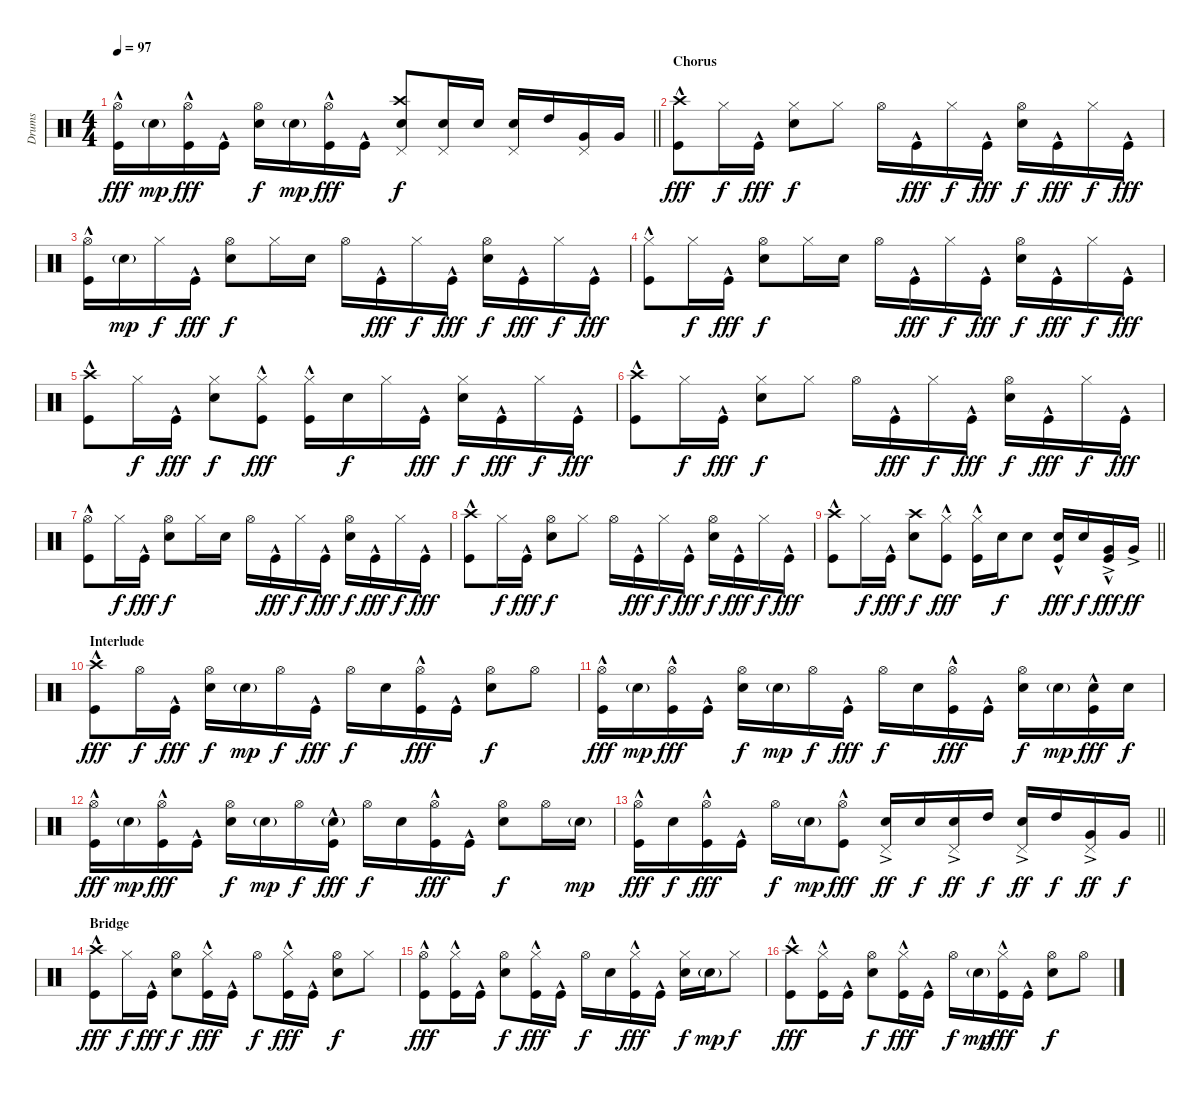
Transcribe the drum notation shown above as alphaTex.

\track ("Drums" "Drums") {instrument percussion}
\staff {score}
\articulation defaults
\ts (4 4)
\tempo 97
\clef neutral
\barLineRight lightlight
\ks c
("Hi-Hat (open)" "Kick (hit)"{hac}).16{dy fff} "Snare (hit) 2"{g}.16{dy mp} ("Hi-Hat (open)" "Kick (hit)"{hac}).16{dy fff} "Kick (hit)"{hac}.16 ("Hi-Hat (open)" "Snare (hit) 2").16{dy f} "Snare (hit) 2"{g}.16{dy mp} ("Hi-Hat (open)" "Kick (hit)"{hac}).16{dy fff} "Kick (hit)"{hac}.16 ("Crash high (hit)" "Snare (hit) 2" "Pedal Hi-Hat (hit)").8{dy f} ("Snare (hit) 2" "Pedal Hi-Hat (hit)").16 "Snare (hit) 2".16 ("Snare (hit) 2" "Pedal Hi-Hat (hit)").16 "High Tom (hit)".16 ("Very Low Tom (hit)" "Pedal Hi-Hat (hit)").16 "Very Low Tom (hit)".16 |
\section ("" "Chorus")
("Crash high (hit)" "Kick (hit)"{hac}).8{dy fff} "Hi-Hat (closed)".16{dy f} "Kick (hit)"{hac}.16{dy fff} ("Hi-Hat (closed)" "Snare (hit) 2").8{dy f} "Hi-Hat (closed)".8 "Hi-Hat (open)".16 "Kick (hit)"{hac}.16{dy fff} "Hi-Hat (closed)".16{dy f} "Kick (hit)"{hac}.16{dy fff} ("Hi-Hat (open)" "Snare (hit) 2").16{dy f} "Kick (hit)"{hac}.16{dy fff} "Hi-Hat (closed)".16{dy f} "Kick (hit)"{hac}.16{dy fff} |
("Hi-Hat (open)" "Kick (hit)"{hac}).16 "Snare (hit) 2"{g}.16{dy mp} "Hi-Hat (closed)".16{dy f} "Kick (hit)"{hac}.16{dy fff} ("Hi-Hat (open)" "Snare (hit) 2").8{dy f} "Hi-Hat (closed)".16 "Snare (hit) 2".16 "Hi-Hat (open)".16 "Kick (hit)"{hac}.16{dy fff} "Hi-Hat (closed)".16{dy f} "Kick (hit)"{hac}.16{dy fff} ("Hi-Hat (open)" "Snare (hit) 2").16{dy f} "Kick (hit)"{hac}.16{dy fff} "Hi-Hat (closed)".16{dy f} "Kick (hit)"{hac}.16{dy fff} |
("Hi-Hat (closed)" "Kick (hit)"{hac}).8 "Hi-Hat (closed)".16{dy f} "Kick (hit)"{hac}.16{dy fff} ("Hi-Hat (open)" "Snare (hit) 2").8{dy f} "Hi-Hat (closed)".16 "Snare (hit) 2".16 "Hi-Hat (open)".16 "Kick (hit)"{hac}.16{dy fff} "Hi-Hat (closed)".16{dy f} "Kick (hit)"{hac}.16{dy fff} ("Hi-Hat (open)" "Snare (hit) 2").16{dy f} "Kick (hit)"{hac}.16{dy fff} "Hi-Hat (closed)".16{dy f} "Kick (hit)"{hac}.16{dy fff} |
("Crash high (hit)" "Kick (hit)"{hac}).8 "Hi-Hat (closed)".16{dy f} "Kick (hit)"{hac}.16{dy fff} ("Hi-Hat (closed)" "Snare (hit) 2").8{dy f} ("Hi-Hat (closed)" "Kick (hit)"{hac}).8{dy fff} ("Hi-Hat (closed)" "Kick (hit)"{hac}).16 "Snare (hit) 2".16{dy f} "Hi-Hat (closed)".16 "Kick (hit)"{hac}.16{dy fff} ("Hi-Hat (closed)" "Snare (hit) 2").16{dy f} "Kick (hit)"{hac}.16{dy fff} "Hi-Hat (closed)".16{dy f} "Kick (hit)"{hac}.16{dy fff} |
("Crash high (hit)" "Kick (hit)"{hac}).8 "Hi-Hat (closed)".16{dy f} "Kick (hit)"{hac}.16{dy fff} ("Hi-Hat (closed)" "Snare (hit) 2").8{dy f} "Hi-Hat (closed)".8 "Hi-Hat (open)".16 "Kick (hit)"{hac}.16{dy fff} "Hi-Hat (closed)".16{dy f} "Kick (hit)"{hac}.16{dy fff} ("Hi-Hat (open)" "Snare (hit) 2").16{dy f} "Kick (hit)"{hac}.16{dy fff} "Hi-Hat (closed)".16{dy f} "Kick (hit)"{hac}.16{dy fff} |
("Hi-Hat (open)" "Kick (hit)"{hac}).8 "Hi-Hat (closed)".16{dy f} "Kick (hit)"{hac}.16{dy fff} ("Hi-Hat (open)" "Snare (hit) 2").8{dy f} "Hi-Hat (closed)".16 "Snare (hit) 2".16 "Hi-Hat (open)".16 "Kick (hit)"{hac}.16{dy fff} "Hi-Hat (closed)".16{dy f} "Kick (hit)"{hac}.16{dy fff} ("Hi-Hat (open)" "Snare (hit) 2").16{dy f} "Kick (hit)"{hac}.16{dy fff} "Hi-Hat (closed)".16{dy f} "Kick (hit)"{hac}.16{dy fff} |
("Crash high (hit)" "Kick (hit)"{hac}).8 "Hi-Hat (closed)".16{dy f} "Kick (hit)"{hac}.16{dy fff} ("Hi-Hat (open)" "Snare (hit) 2").8{dy f} "Hi-Hat (closed)".8 "Hi-Hat (open)".16 "Kick (hit)"{hac}.16{dy fff} "Hi-Hat (closed)".16{dy f} "Kick (hit)"{hac}.16{dy fff} ("Hi-Hat (open)" "Snare (hit) 2").16{dy f} "Kick (hit)"{hac}.16{dy fff} "Hi-Hat (closed)".16{dy f} "Kick (hit)"{hac}.16{dy fff} |
\barLineRight lightlight
("Crash high (hit)" "Kick (hit)"{hac}).8 "Hi-Hat (closed)".16{dy f} "Kick (hit)"{hac}.16{dy fff} ("Crash high (hit)" "Snare (hit) 2").8{dy f} ("Hi-Hat (closed)" "Kick (hit)"{hac}).8{dy fff} ("Hi-Hat (closed)" "Kick (hit)"{hac}).16 "Snare (hit) 2".16{dy f} "Snare (hit) 2".8 ("Snare (hit) 2" "Kick (hit)"{hac}).16{dy fff} "Snare (hit) 2".16{dy f} ("Very Low Tom (hit)"{ac} "Kick (hit)"{hac}).16{dy fff} "Very Low Tom (hit)"{ac}.16{dy ff} |
\section ("" "Interlude")
("Crash high (hit)" "Kick (hit)"{hac}).8{dy fff} "Hi-Hat (open)".16{dy f} "Kick (hit)"{hac}.16{dy fff} ("Hi-Hat (open)" "Snare (hit) 2").16{dy f} "Snare (hit) 2"{g}.16{dy mp} "Hi-Hat (open)".16{dy f} "Kick (hit)"{hac}.16{dy fff} "Hi-Hat (open)".16{dy f} "Snare (hit) 2".16 ("Hi-Hat (open)" "Kick (hit)"{hac}).16{dy fff} "Kick (hit)"{hac}.16 ("Hi-Hat (open)" "Snare (hit) 2").8{dy f} "Hi-Hat (open)".8 |
("Hi-Hat (open)" "Kick (hit)"{hac}).16{dy fff} "Snare (hit) 2"{g}.16{dy mp} ("Hi-Hat (open)" "Kick (hit)"{hac}).16{dy fff} "Kick (hit)"{hac}.16 ("Hi-Hat (open)" "Snare (hit) 2").16{dy f} "Snare (hit) 2"{g}.16{dy mp} "Hi-Hat (open)".16{dy f} "Kick (hit)"{hac}.16{dy fff} "Hi-Hat (open)".16{dy f} "Snare (hit) 2".16 ("Hi-Hat (open)" "Kick (hit)"{hac}).16{dy fff} "Kick (hit)"{hac}.16 ("Hi-Hat (open)" "Snare (hit) 2").16{dy f} "Snare (hit) 2"{g}.16{dy mp} ("Snare (hit) 2" "Kick (hit)"{hac}).16{dy fff} "Snare (hit) 2".16{dy f} |
("Hi-Hat (open)" "Kick (hit)"{hac}).16{dy fff} "Snare (hit) 2"{g}.16{dy mp} ("Hi-Hat (open)" "Kick (hit)"{hac}).16{dy fff} "Kick (hit)"{hac}.16 ("Hi-Hat (open)" "Snare (hit) 2").16{dy f} "Snare (hit) 2"{g}.16{dy mp} "Hi-Hat (open)".16{dy f} ("Snare (hit) 2"{g} "Kick (hit)"{hac}).16{dy fff} "Hi-Hat (open)".16{dy f} "Snare (hit) 2".16 ("Hi-Hat (open)" "Kick (hit)"{hac}).16{dy fff} "Kick (hit)"{hac}.16 ("Hi-Hat (open)" "Snare (hit) 2").8{dy f} "Hi-Hat (open)".16 "Snare (hit) 2"{g}.16{dy mp} |
\barLineRight lightlight
("Hi-Hat (open)" "Kick (hit)"{hac}).16{dy fff} "Snare (hit) 2".16{dy f} ("Hi-Hat (open)" "Kick (hit)"{hac}).16{dy fff} "Kick (hit)"{hac}.16 "Hi-Hat (open)".16{dy f} "Snare (hit) 2"{g}.16{dy mp} ("Hi-Hat (open)" "Kick (hit)"{hac}).8{dy fff} ("Snare (hit) 2" "Pedal Hi-Hat (hit)"{ac}).16{dy ff} "Snare (hit) 2".16{dy f} ("Snare (hit) 2" "Pedal Hi-Hat (hit)"{ac}).16{dy ff} "High Tom (hit)".16{dy f} ("Snare (hit) 2" "Pedal Hi-Hat (hit)"{ac}).16{dy ff} "High Tom (hit)".16{dy f} ("Very Low Tom (hit)" "Pedal Hi-Hat (hit)"{ac}).16{dy ff} "Very Low Tom (hit)".16{dy f} |
\section ("" "Bridge")
("Crash high (hit)" "Kick (hit)"{hac}).8{dy fff} "Hi-Hat (closed)".16{dy f} "Kick (hit)"{hac}.16{dy fff} ("Hi-Hat (open)" "Snare (hit) 2").8{dy f} ("Hi-Hat (closed)" "Kick (hit)"{hac}).16{dy fff} "Kick (hit)"{hac}.16 "Hi-Hat (open)".8{dy f} ("Hi-Hat (closed)" "Kick (hit)"{hac}).16{dy fff} "Kick (hit)"{hac}.16 ("Hi-Hat (open)" "Snare (hit) 2").8{dy f} "Hi-Hat (closed)".8 |
("Hi-Hat (open)" "Kick (hit)"{hac}).8{dy fff} ("Hi-Hat (closed)" "Kick (hit)"{hac}).16 "Kick (hit)"{hac}.16 ("Hi-Hat (open)" "Snare (hit) 2").8{dy f} ("Hi-Hat (closed)" "Kick (hit)"{hac}).16{dy fff} "Kick (hit)"{hac}.16 "Hi-Hat (open)".16{dy f} "Snare (hit) 2".16 ("Hi-Hat (closed)" "Kick (hit)"{hac}).16{dy fff} "Kick (hit)"{hac}.16 ("Hi-Hat (closed)" "Snare (hit) 2").16{dy f} "Snare (hit) 2"{g}.16{dy mp} "Hi-Hat (closed)".8{dy f} |
("Crash high (hit)" "Kick (hit)"{hac}).8{dy fff} ("Hi-Hat (closed)" "Kick (hit)"{hac}).16 "Kick (hit)"{hac}.16 ("Hi-Hat (open)" "Snare (hit) 2").8{dy f} ("Hi-Hat (closed)" "Kick (hit)"{hac}).16{dy fff} "Kick (hit)"{hac}.16 "Hi-Hat (open)".16{dy f} "Snare (hit) 2"{g}.16{dy mp} ("Hi-Hat (closed)" "Kick (hit)"{hac}).16{dy fff} "Kick (hit)"{hac}.16 ("Hi-Hat (open)" "Snare (hit) 2").8{dy f} "Hi-Hat (open)".8
